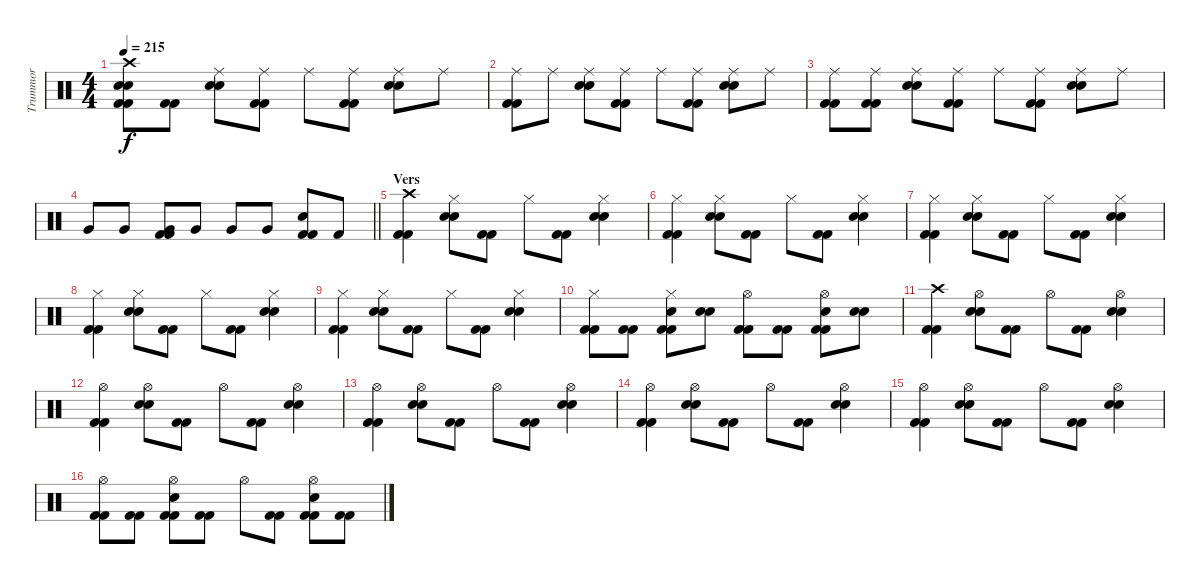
\track ("Trummor" "Trummor") {instrument percussion}
\staff {score}
\articulation defaults
\ts (4 4)
\tempo 215
\clef neutral
\ks c
("Crash high (hit)" "Electric Snare (hit)" "Electric Snare (hit)" "Kick (hit) 2" "Kick (hit) 2").8{dy f} ("Kick (hit) 2" "Kick (hit) 2").8 ("Ride (middle)" "Electric Snare (hit)" "Electric Snare (hit)").8 ("Ride (middle)" "Kick (hit) 2" "Kick (hit) 2").8 "Ride (middle)".8 ("Ride (middle)" "Kick (hit) 2" "Kick (hit) 2").8 ("Ride (middle)" "Electric Snare (hit)" "Electric Snare (hit)").8 "Ride (middle)".8 |
("Ride (middle)" "Kick (hit) 2" "Kick (hit) 2").8 "Ride (middle)".8 ("Ride (middle)" "Electric Snare (hit)" "Electric Snare (hit)").8 ("Ride (middle)" "Kick (hit) 2" "Kick (hit) 2").8 "Ride (middle)".8 ("Ride (middle)" "Kick (hit) 2" "Kick (hit) 2").8 ("Ride (middle)" "Electric Snare (hit)" "Electric Snare (hit)").8 "Ride (middle)".8 |
("Ride (middle)" "Kick (hit) 2" "Kick (hit) 2").8 ("Ride (middle)" "Kick (hit) 2" "Kick (hit) 2").8 ("Ride (middle)" "Electric Snare (hit)" "Electric Snare (hit)").8 ("Ride (middle)" "Kick (hit) 2" "Kick (hit) 2").8 "Ride (middle)".8 ("Ride (middle)" "Kick (hit) 2" "Kick (hit) 2").8 ("Ride (middle)" "Electric Snare (hit)" "Electric Snare (hit)").8 "Ride (middle)".8 |
\barLineRight lightlight "Very Low Tom (hit)".8 "Very Low Tom (hit)".8
("Very Low Tom (hit)" "Kick (hit) 2" "Kick (hit) 2").8 "Very Low Tom (hit)".8 "Very Low Tom (hit)".8 "Very Low Tom (hit)".8 ("Electric Snare (hit)" "Kick (hit) 2" "Kick (hit) 2").8 "Kick (hit) 2".8 |
\section ("" "Vers")
("Crash high (hit)" "Kick (hit) 2" "Kick (hit) 2").4 ("Hi-Hat (closed)" "Electric Snare (hit)" "Electric Snare (hit)").8 ("Kick (hit) 2" "Kick (hit) 2").8 "Hi-Hat (closed)".8 ("Kick (hit) 2" "Kick (hit) 2").8 ("Hi-Hat (closed)" "Electric Snare (hit)" "Electric Snare (hit)").4 |
("Hi-Hat (closed)" "Kick (hit) 2" "Kick (hit) 2").4 ("Hi-Hat (closed)" "Electric Snare (hit)" "Electric Snare (hit)").8 ("Kick (hit) 2" "Kick (hit) 2").8 "Hi-Hat (closed)".8 ("Kick (hit) 2" "Kick (hit) 2").8 ("Hi-Hat (closed)" "Electric Snare (hit)" "Electric Snare (hit)").4 |
("Hi-Hat (closed)" "Kick (hit) 2" "Kick (hit) 2").4 ("Hi-Hat (closed)" "Electric Snare (hit)" "Electric Snare (hit)").8 ("Kick (hit) 2" "Kick (hit) 2").8 "Hi-Hat (closed)".8 ("Kick (hit) 2" "Kick (hit) 2").8 ("Hi-Hat (closed)" "Electric Snare (hit)" "Electric Snare (hit)").4 |
("Hi-Hat (closed)" "Kick (hit) 2" "Kick (hit) 2").4 ("Hi-Hat (closed)" "Electric Snare (hit)" "Electric Snare (hit)").8 ("Kick (hit) 2" "Kick (hit) 2").8 "Hi-Hat (closed)".8 ("Kick (hit) 2" "Kick (hit) 2").8 ("Hi-Hat (closed)" "Electric Snare (hit)" "Electric Snare (hit)").4 |
("Hi-Hat (closed)" "Kick (hit) 2" "Kick (hit) 2").4 ("Hi-Hat (closed)" "Electric Snare (hit)" "Electric Snare (hit)").8 ("Kick (hit) 2" "Kick (hit) 2").8 "Hi-Hat (closed)".8 ("Kick (hit) 2" "Kick (hit) 2").8 ("Hi-Hat (closed)" "Electric Snare (hit)" "Electric Snare (hit)").4 |
("Hi-Hat (closed)" "Kick (hit) 2" "Kick (hit) 2").8 ("Kick (hit) 2" "Kick (hit) 2").8 ("Hi-Hat (closed)" "Electric Snare (hit)" "Kick (hit) 2" "Kick (hit) 2").8 ("Electric Snare (hit)" "Electric Snare (hit)").8 ("Hi-Hat (open)" "Kick (hit) 2" "Kick (hit) 2").8 ("Kick (hit) 2" "Kick (hit) 2").8 ("Hi-Hat (open)" "Electric Snare (hit)" "Kick (hit) 2" "Kick (hit) 2").8 ("Electric Snare (hit)" "Electric Snare (hit)").8 |
("Crash high (hit)" "Kick (hit) 2" "Kick (hit) 2").4 ("Hi-Hat (open)" "Electric Snare (hit)" "Electric Snare (hit)").8 ("Kick (hit) 2" "Kick (hit) 2").8 "Hi-Hat (open)".8 ("Kick (hit) 2" "Kick (hit) 2").8 ("Hi-Hat (open)" "Electric Snare (hit)" "Electric Snare (hit)").4 |
("Hi-Hat (open)" "Kick (hit) 2" "Kick (hit) 2").4 ("Hi-Hat (open)" "Electric Snare (hit)" "Electric Snare (hit)").8 ("Kick (hit) 2" "Kick (hit) 2").8 "Hi-Hat (open)".8 ("Kick (hit) 2" "Kick (hit) 2").8 ("Hi-Hat (open)" "Electric Snare (hit)" "Electric Snare (hit)").4 |
("Hi-Hat (open)" "Kick (hit) 2" "Kick (hit) 2").4 ("Hi-Hat (open)" "Electric Snare (hit)" "Electric Snare (hit)").8 ("Kick (hit) 2" "Kick (hit) 2").8 "Hi-Hat (open)".8 ("Kick (hit) 2" "Kick (hit) 2").8 ("Hi-Hat (open)" "Electric Snare (hit)" "Electric Snare (hit)").4 |
("Hi-Hat (open)" "Kick (hit) 2" "Kick (hit) 2").4 ("Hi-Hat (open)" "Electric Snare (hit)" "Electric Snare (hit)").8 ("Kick (hit) 2" "Kick (hit) 2").8 "Hi-Hat (open)".8 ("Kick (hit) 2" "Kick (hit) 2").8 ("Hi-Hat (open)" "Electric Snare (hit)" "Electric Snare (hit)").4 |
("Hi-Hat (open)" "Kick (hit) 2" "Kick (hit) 2").4 ("Hi-Hat (open)" "Electric Snare (hit)" "Electric Snare (hit)").8 ("Kick (hit) 2" "Kick (hit) 2").8 "Hi-Hat (open)".8 ("Kick (hit) 2" "Kick (hit) 2").8 ("Hi-Hat (open)" "Electric Snare (hit)" "Electric Snare (hit)").4 |
("Hi-Hat (open)" "Kick (hit) 2" "Kick (hit) 2").8 ("Kick (hit) 2" "Kick (hit) 2").8 ("Hi-Hat (open)" "Electric Snare (hit)" "Kick (hit) 2" "Kick (hit) 2").8 ("Kick (hit) 2" "Kick (hit) 2").8 "Hi-Hat (open)".8 ("Kick (hit) 2" "Kick (hit) 2").8 ("Hi-Hat (open)" "Electric Snare (hit)" "Kick (hit) 2" "Kick (hit) 2").8 ("Kick (hit) 2" "Kick (hit) 2").8
